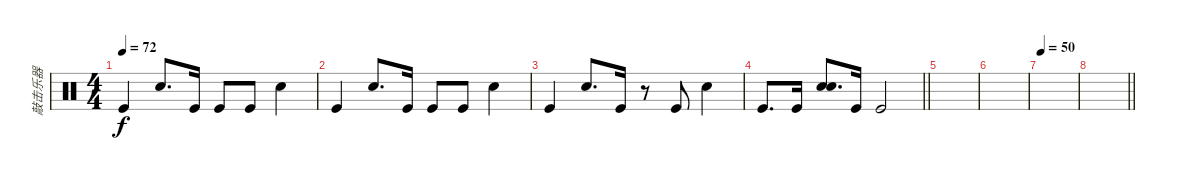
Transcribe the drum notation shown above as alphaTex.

\track ("敲击乐器" "敲击乐器") {instrument percussion}
\staff {score}
\articulation defaults
\ts (4 4)
\tempo 72
\clef neutral
\ks c "Kick (hit)".4{dy f} "Snare (hit) 2".8{d} "Kick (hit)".16 "Kick (hit)".8 "Kick (hit)".8 "Snare (hit) 2".4
|
"Kick (hit)".4 "Snare (hit) 2".8{d} "Kick (hit)".16 "Kick (hit)".8 "Kick (hit)".8 "Snare (hit) 2".4 |
"Kick (hit)".4 "Snare (hit) 2".8{d} "Kick (hit)".16 r.8 "Kick (hit)".8 "Snare (hit) 2".4 |
\barLineRight lightlight "Kick (hit)".8{d} "Kick (hit)".16
("Snare (hit) 2" "Electric Snare (hit)").8{d} "Kick (hit)".16 "Kick (hit)".2 |
|
|
\tempo 50
|
\barLineRight lightlight
